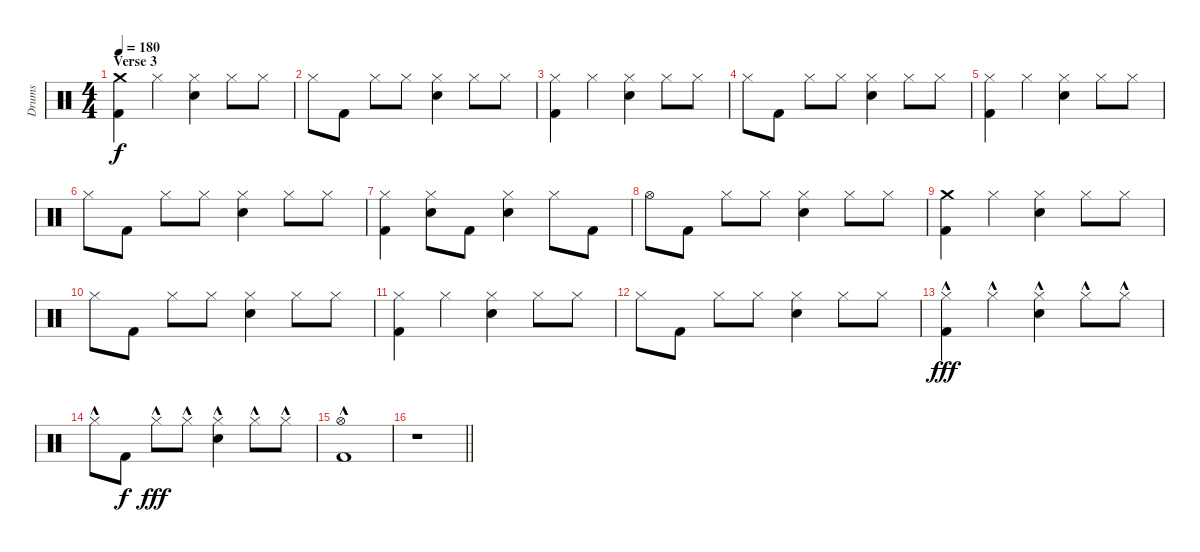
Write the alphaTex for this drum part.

\track ("Drums" "Drums") {instrument percussion}
\staff {score}
\articulation defaults
\ts (4 4)
\section ("" "Verse 3")
\tempo 180
\clef neutral
\ks c
("Crash medium (hit)" "Kick (hit) 2").4{dy f} "Hi-Hat (closed)".4 ("Hi-Hat (closed)" "Electric Snare (hit)").4 "Hi-Hat (closed)".8 "Hi-Hat (closed)".8 |
"Hi-Hat (closed)".8 "Kick (hit) 2".8 "Hi-Hat (closed)".8 "Hi-Hat (closed)".8 ("Hi-Hat (closed)" "Electric Snare (hit)").4 "Hi-Hat (closed)".8 "Hi-Hat (closed)".8 |
("Hi-Hat (closed)" "Kick (hit) 2").4 "Hi-Hat (closed)".4 ("Hi-Hat (closed)" "Electric Snare (hit)").4 "Hi-Hat (closed)".8 "Hi-Hat (closed)".8 |
"Hi-Hat (closed)".8 "Kick (hit) 2".8 "Hi-Hat (closed)".8 "Hi-Hat (closed)".8 ("Hi-Hat (closed)" "Electric Snare (hit)").4 "Hi-Hat (closed)".8 "Hi-Hat (closed)".8 |
("Hi-Hat (closed)" "Kick (hit) 2").4 "Hi-Hat (closed)".4 ("Hi-Hat (closed)" "Electric Snare (hit)").4 "Hi-Hat (closed)".8 "Hi-Hat (closed)".8 |
"Hi-Hat (closed)".8 "Kick (hit) 2".8 "Hi-Hat (closed)".8 "Hi-Hat (closed)".8 ("Hi-Hat (closed)" "Electric Snare (hit)").4 "Hi-Hat (closed)".8 "Hi-Hat (closed)".8 |
("Hi-Hat (closed)" "Kick (hit) 2").4 ("Hi-Hat (closed)" "Electric Snare (hit)").8 "Kick (hit) 2".8 ("Hi-Hat (closed)" "Electric Snare (hit)").4 "Hi-Hat (closed)".8 "Kick (hit) 2".8 |
"Hi-Hat (open)".8 "Kick (hit) 2".8 "Hi-Hat (closed)".8 "Hi-Hat (closed)".8 ("Hi-Hat (closed)" "Electric Snare (hit)").4 "Hi-Hat (closed)".8 "Hi-Hat (closed)".8 |
("Crash medium (hit)" "Kick (hit) 2").4 "Hi-Hat (closed)".4 ("Hi-Hat (closed)" "Electric Snare (hit)").4 "Hi-Hat (closed)".8 "Hi-Hat (closed)".8 |
"Hi-Hat (closed)".8 "Kick (hit) 2".8 "Hi-Hat (closed)".8 "Hi-Hat (closed)".8 ("Hi-Hat (closed)" "Electric Snare (hit)").4 "Hi-Hat (closed)".8 "Hi-Hat (closed)".8 |
("Hi-Hat (closed)" "Kick (hit) 2").4 "Hi-Hat (closed)".4 ("Hi-Hat (closed)" "Electric Snare (hit)").4 "Hi-Hat (closed)".8 "Hi-Hat (closed)".8 |
"Hi-Hat (closed)".8 "Kick (hit) 2".8 "Hi-Hat (closed)".8 "Hi-Hat (closed)".8 ("Hi-Hat (closed)" "Electric Snare (hit)").4 "Hi-Hat (closed)".8 "Hi-Hat (closed)".8 |
("Hi-Hat (closed)"{hac} "Kick (hit) 2").4{dy fff} "Hi-Hat (closed)"{hac}.4 ("Hi-Hat (closed)"{hac} "Electric Snare (hit)").4 "Hi-Hat (closed)"{hac}.8 "Hi-Hat (closed)"{hac}.8 |
"Hi-Hat (closed)"{hac}.8 "Kick (hit) 2".8{dy f} "Hi-Hat (closed)"{hac}.8{dy fff} "Hi-Hat (closed)"{hac}.8 ("Hi-Hat (closed)"{hac} "Electric Snare (hit)").4 "Hi-Hat (closed)"{hac}.8 "Hi-Hat (closed)"{hac}.8 |
("Hi-Hat (open)"{hac} "Kick (hit) 2").1 |
\barLineRight lightlight
r.1
